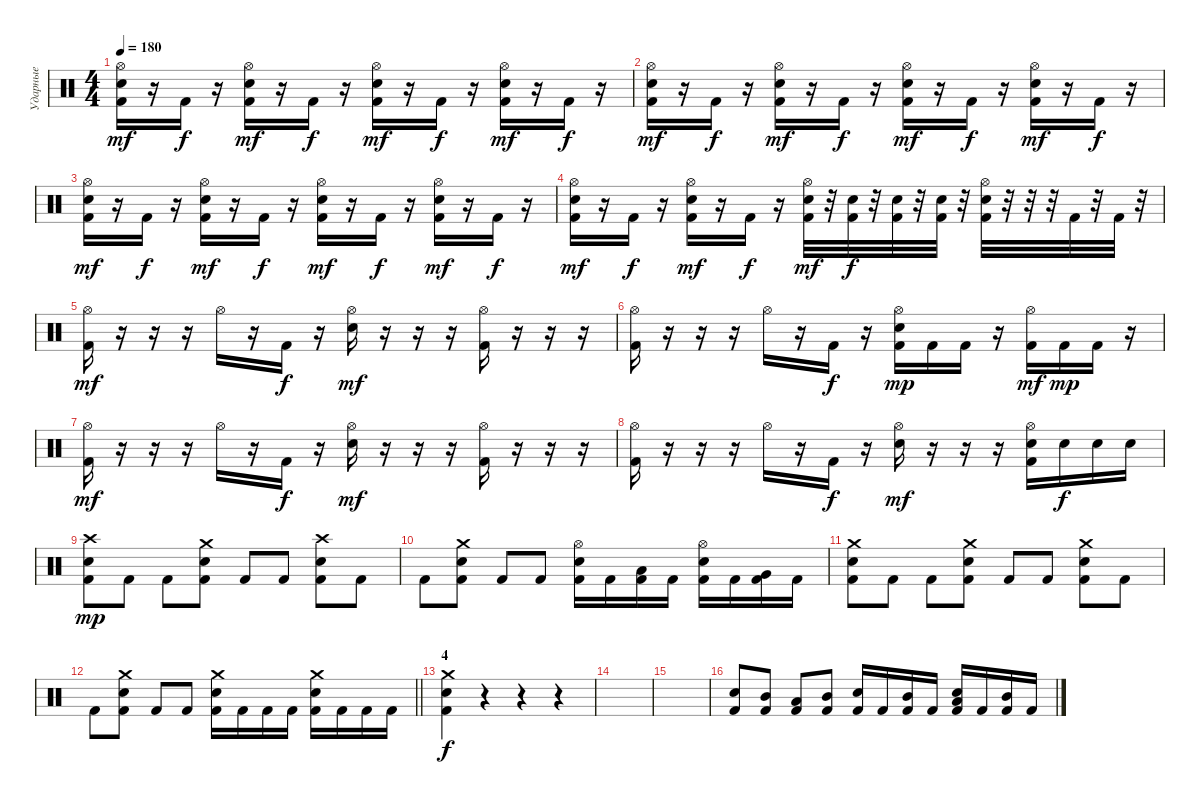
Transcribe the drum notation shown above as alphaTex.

\track ("Ударные" "Ударные") {instrument percussion}
\staff {score}
\articulation defaults
\ts (4 4)
\tempo 180
\clef neutral
\ks c
("Hi-Hat (open)" "Snare (hit) 2" "Kick (hit) 2").16{dy mf} r.16 "Kick (hit) 2".16{dy f} r.16 ("Hi-Hat (open)" "Snare (hit) 2" "Kick (hit) 2").16{dy mf} r.16 "Kick (hit) 2".16{dy f} r.16 ("Hi-Hat (open)" "Snare (hit) 2" "Kick (hit) 2").16{dy mf} r.16 "Kick (hit) 2".16{dy f} r.16 ("Hi-Hat (open)" "Snare (hit) 2" "Kick (hit) 2").16{dy mf} r.16 "Kick (hit) 2".16{dy f} r.16 |
("Hi-Hat (open)" "Snare (hit) 2" "Kick (hit) 2").16{dy mf} r.16 "Kick (hit) 2".16{dy f} r.16 ("Hi-Hat (open)" "Snare (hit) 2" "Kick (hit) 2").16{dy mf} r.16 "Kick (hit) 2".16{dy f} r.16 ("Hi-Hat (open)" "Snare (hit) 2" "Kick (hit) 2").16{dy mf} r.16 "Kick (hit) 2".16{dy f} r.16 ("Hi-Hat (open)" "Snare (hit) 2" "Kick (hit) 2").16{dy mf} r.16 "Kick (hit) 2".16{dy f} r.16 |
("Hi-Hat (open)" "Snare (hit) 2" "Kick (hit) 2").16{dy mf} r.16 "Kick (hit) 2".16{dy f} r.16 ("Hi-Hat (open)" "Snare (hit) 2" "Kick (hit) 2").16{dy mf} r.16 "Kick (hit) 2".16{dy f} r.16 ("Hi-Hat (open)" "Snare (hit) 2" "Kick (hit) 2").16{dy mf} r.16 "Kick (hit) 2".16{dy f} r.16 ("Hi-Hat (open)" "Snare (hit) 2" "Kick (hit) 2").16{dy mf} r.16 "Kick (hit) 2".16{dy f} r.16 |
("Hi-Hat (open)" "Snare (hit) 2" "Kick (hit) 2").16{dy mf} r.16 "Kick (hit) 2".16{dy f} r.16 ("Hi-Hat (open)" "Snare (hit) 2" "Kick (hit) 2").16{dy mf} r.16 "Kick (hit) 2".16{dy f} r.16 ("Hi-Hat (open)" "Snare (hit) 2" "Kick (hit) 2").32{dy mf} r.32 ("Snare (hit) 2" "Kick (hit) 2").32{dy f} r.32 ("Snare (hit) 2" "Kick (hit) 2").32 r.32 ("Snare (hit) 2" "Kick (hit) 2").32 r.32 ("Hi-Hat (open)" "Snare (hit) 2" "Kick (hit) 2").32 r.32 r.32 r.32 "Kick (hit) 2".32 r.32 "Kick (hit) 2".32 r.32 |
("Hi-Hat (open)" "Kick (hit) 2").16{dy mf} r.16 r.16 r.16 "Hi-Hat (open)".16 r.16 "Kick (hit) 2".16{dy f} r.16 ("Hi-Hat (open)" "Snare (hit) 2").16{dy mf} r.16 r.16 r.16 ("Hi-Hat (open)" "Kick (hit) 2").16 r.16 r.16 r.16 |
("Hi-Hat (open)" "Kick (hit) 2").16 r.16 r.16 r.16 "Hi-Hat (open)".16 r.16 "Kick (hit) 2".16{dy f} r.16 ("Hi-Hat (open)" "Snare (hit) 2" "Kick (hit) 2").16{dy mp} "Kick (hit) 2".16 "Kick (hit) 2".16 r.16 ("Hi-Hat (open)" "Kick (hit) 2").16{dy mf} "Kick (hit) 2".16{dy mp} "Kick (hit) 2".16 r.16 |
("Hi-Hat (open)" "Kick (hit) 2").16{dy mf} r.16 r.16 r.16 "Hi-Hat (open)".16 r.16 "Kick (hit) 2".16{dy f} r.16 ("Hi-Hat (open)" "Snare (hit) 2").16{dy mf} r.16 r.16 r.16 ("Hi-Hat (open)" "Kick (hit) 2").16 r.16 r.16 r.16 |
("Hi-Hat (open)" "Kick (hit) 2").16 r.16 r.16 r.16 "Hi-Hat (open)".16 r.16 "Kick (hit) 2".16{dy f} r.16 ("Hi-Hat (open)" "Snare (hit) 2").16{dy mf} r.16 r.16 r.16 ("Hi-Hat (open)" "Snare (hit) 2" "Kick (hit) 2").16 "Snare (hit) 2".16{dy f} "Snare (hit) 2".16 "Snare (hit) 2".16 |
("Crash high (hit)" "Snare (hit) 2" "Kick (hit) 2").8{dy mp} "Kick (hit) 2".8 "Kick (hit) 2".8 ("Crash medium (hit)" "Snare (hit) 2" "Kick (hit) 2").8 "Kick (hit) 2".8 "Kick (hit) 2".8 ("Crash high (hit)" "Snare (hit) 2" "Kick (hit) 2").8 "Kick (hit) 2".8 |
"Kick (hit) 2".8 ("Crash medium (hit)" "Snare (hit) 2" "Kick (hit) 2").8 "Kick (hit) 2".8 "Kick (hit) 2".8 ("Hi-Hat (open)" "Snare (hit) 2" "Kick (hit) 2").16 "Kick (hit) 2".16 ("Low Tom (hit)" "Kick (hit) 2").16 "Kick (hit) 2".16 ("Hi-Hat (open)" "Snare (hit) 2" "Kick (hit) 2").16 "Kick (hit) 2".16 ("Very Low Tom (hit)" "Kick (hit) 2").16 "Kick (hit) 2".16 |
("Crash medium (hit)" "Snare (hit) 2" "Kick (hit) 2").8 "Kick (hit) 2".8 "Kick (hit) 2".8 ("Crash medium (hit)" "Snare (hit) 2" "Kick (hit) 2").8 "Kick (hit) 2".8 "Kick (hit) 2".8 ("Crash medium (hit)" "Snare (hit) 2" "Kick (hit) 2").8 "Kick (hit) 2".8 |
\barLineRight lightlight "Kick (hit) 2".8
("Crash medium (hit)" "Snare (hit) 2" "Kick (hit) 2").8 "Kick (hit) 2".8 "Kick (hit) 2".8 ("Crash medium (hit)" "Snare (hit) 2" "Kick (hit) 2").16 "Kick (hit) 2".16 "Kick (hit) 2".16 "Kick (hit) 2".16 ("Crash medium (hit)" "Snare (hit) 2" "Kick (hit) 2").16 "Kick (hit) 2".16 "Kick (hit) 2".16 "Kick (hit) 2".16 |
\section ("" "4")
("Crash medium (hit)" "Snare (hit) 2" "Kick (hit) 2").4{dy f} r.4 r.4 r.4 |
|
|
("Snare (hit) 2" "Kick (hit) 2").8 ("Mid Tom (hit)" "Kick (hit) 2").8 ("Low Tom (hit)" "Kick (hit) 2").8 ("Mid Tom (hit)" "Kick (hit) 2").8 ("Snare (hit) 2" "Kick (hit) 2").16 "Kick (hit) 2".16 ("Mid Tom (hit)" "Kick (hit) 2").16 "Kick (hit) 2".16 ("Low Tom (hit)" "Snare (hit) 2" "Kick (hit) 2").16 "Kick (hit) 2".16 ("Mid Tom (hit)" "Kick (hit) 2").16 "Kick (hit) 2".16
